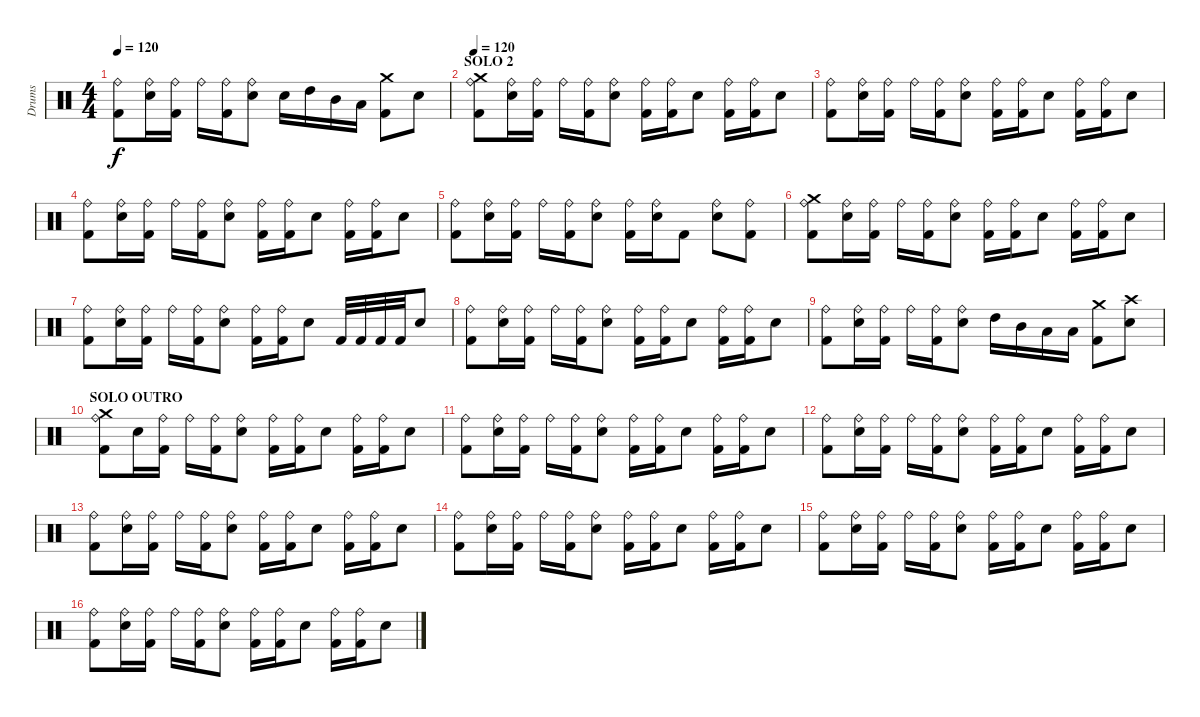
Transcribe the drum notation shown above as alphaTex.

\track ("Drums" "Drums") {instrument percussion}
\staff {score}
\articulation defaults
\ts (4 4)
\tempo 120
\clef neutral
\ks c
("Kick (hit) 2" "Ride (bell)").8{dy f} ("Snare (hit) 2" "Ride (bell)").16 ("Kick (hit) 2" "Ride (bell)").16 "Ride (bell)".16 ("Kick (hit) 2" "Ride (bell)").16 ("Snare (hit) 2" "Ride (bell)").8 "Snare (hit) 2".16 "High Tom (hit)".16 "Mid Tom (hit)".16 "Low Tom (hit)".16 ("Crash medium (hit)" "Kick (hit) 2").8 "Snare (hit) 2".8 |
\section ("" "SOLO 2")
\tempo 120
("Crash medium (hit)" "Kick (hit) 2" "Ride (bell)").8 ("Snare (hit) 2" "Ride (bell)").16 ("Kick (hit) 2" "Ride (bell)").16 "Ride (bell)".16 ("Kick (hit) 2" "Ride (bell)").16 ("Snare (hit) 2" "Ride (bell)").8 ("Kick (hit) 2" "Ride (bell)").16 ("Kick (hit) 2" "Ride (bell)").16 "Snare (hit) 2".8 ("Kick (hit) 2" "Ride (bell)").16 ("Kick (hit) 2" "Ride (bell)").16 "Snare (hit) 2".8 |
("Kick (hit) 2" "Ride (bell)").8 ("Snare (hit) 2" "Ride (bell)").16 ("Kick (hit) 2" "Ride (bell)").16 "Ride (bell)".16 ("Kick (hit) 2" "Ride (bell)").16 ("Snare (hit) 2" "Ride (bell)").8 ("Kick (hit) 2" "Ride (bell)").16 ("Kick (hit) 2" "Ride (bell)").16 "Snare (hit) 2".8 ("Kick (hit) 2" "Ride (bell)").16 ("Kick (hit) 2" "Ride (bell)").16 "Snare (hit) 2".8 |
("Kick (hit) 2" "Ride (bell)").8 ("Snare (hit) 2" "Ride (bell)").16 ("Kick (hit) 2" "Ride (bell)").16 "Ride (bell)".16 ("Kick (hit) 2" "Ride (bell)").16 ("Snare (hit) 2" "Ride (bell)").8 ("Kick (hit) 2" "Ride (bell)").16 ("Kick (hit) 2" "Ride (bell)").16 "Snare (hit) 2".8 ("Kick (hit) 2" "Ride (bell)").16 ("Kick (hit) 2" "Ride (bell)").16 "Snare (hit) 2".8 |
("Kick (hit) 2" "Ride (bell)").8 ("Snare (hit) 2" "Ride (bell)").16 ("Kick (hit) 2" "Ride (bell)").16 "Ride (bell)".16 ("Kick (hit) 2" "Ride (bell)").16 ("Snare (hit) 2" "Ride (bell)").8 ("Kick (hit) 2" "Ride (bell)").16 ("Snare (hit) 2" "Ride (bell)").16 "Kick (hit) 2".8 ("Snare (hit) 2" "Ride (bell)").8 ("Kick (hit) 2" "Ride (bell)").8 |
("Crash medium (hit)" "Kick (hit) 2" "Ride (bell)").8 ("Snare (hit) 2" "Ride (bell)").16 ("Kick (hit) 2" "Ride (bell)").16 "Ride (bell)".16 ("Kick (hit) 2" "Ride (bell)").16 ("Snare (hit) 2" "Ride (bell)").8 ("Kick (hit) 2" "Ride (bell)").16 ("Kick (hit) 2" "Ride (bell)").16 "Snare (hit) 2".8 ("Kick (hit) 2" "Ride (bell)").16 ("Kick (hit) 2" "Ride (bell)").16 "Snare (hit) 2".8 |
("Kick (hit) 2" "Ride (bell)").8 ("Snare (hit) 2" "Ride (bell)").16 ("Kick (hit) 2" "Ride (bell)").16 "Ride (bell)".16 ("Kick (hit) 2" "Ride (bell)").16 ("Snare (hit) 2" "Ride (bell)").8 ("Kick (hit) 2" "Ride (bell)").16 ("Kick (hit) 2" "Ride (bell)").16 "Snare (hit) 2".8 "Kick (hit) 2".32 "Kick (hit) 2".32 "Kick (hit) 2".32 "Kick (hit) 2".32 "Snare (hit) 2".8 |
("Kick (hit) 2" "Ride (bell)").8 ("Snare (hit) 2" "Ride (bell)").16 ("Kick (hit) 2" "Ride (bell)").16 "Ride (bell)".16 ("Kick (hit) 2" "Ride (bell)").16 ("Snare (hit) 2" "Ride (bell)").8 ("Kick (hit) 2" "Ride (bell)").16 ("Kick (hit) 2" "Ride (bell)").16 "Snare (hit) 2".8 ("Kick (hit) 2" "Ride (bell)").16 ("Kick (hit) 2" "Ride (bell)").16 "Snare (hit) 2".8 |
("Kick (hit) 2" "Ride (bell)").8 ("Snare (hit) 2" "Ride (bell)").16 ("Kick (hit) 2" "Ride (bell)").16 "Ride (bell)".16 ("Kick (hit) 2" "Ride (bell)").16 ("Snare (hit) 2" "Ride (bell)").8 "High Tom (hit)".16 "Mid Tom (hit)".16 "Low Tom (hit)".16 "Low Tom (hit)".16 ("Crash medium (hit)" "Kick (hit) 2").8 ("Crash high (hit)" "Snare (hit) 2").8 |
\section ("" "SOLO OUTRO")
("Crash medium (hit)" "Kick (hit) 2" "Ride (bell)").8 "Snare (hit) 2".16 ("Kick (hit) 2" "Ride (bell)").16 "Ride (bell)".16 ("Kick (hit) 2" "Ride (bell)").16 ("Snare (hit) 2" "Ride (bell)").8 ("Kick (hit) 2" "Ride (bell)").16 ("Kick (hit) 2" "Ride (bell)").16 "Snare (hit) 2".8 ("Kick (hit) 2" "Ride (bell)").16 ("Kick (hit) 2" "Ride (bell)").16 "Snare (hit) 2".8 |
("Kick (hit) 2" "Ride (bell)").8 ("Snare (hit) 2" "Ride (bell)").16 ("Kick (hit) 2" "Ride (bell)").16 "Ride (bell)".16 ("Kick (hit) 2" "Ride (bell)").16 ("Snare (hit) 2" "Ride (bell)").8 ("Kick (hit) 2" "Ride (bell)").16 ("Kick (hit) 2" "Ride (bell)").16 "Snare (hit) 2".8 ("Kick (hit) 2" "Ride (bell)").16 ("Kick (hit) 2" "Ride (bell)").16 "Snare (hit) 2".8 |
("Kick (hit) 2" "Ride (bell)").8 ("Snare (hit) 2" "Ride (bell)").16 ("Kick (hit) 2" "Ride (bell)").16 "Ride (bell)".16 ("Kick (hit) 2" "Ride (bell)").16 ("Snare (hit) 2" "Ride (bell)").8 ("Kick (hit) 2" "Ride (bell)").16 ("Kick (hit) 2" "Ride (bell)").16 "Snare (hit) 2".8 ("Kick (hit) 2" "Ride (bell)").16 ("Kick (hit) 2" "Ride (bell)").16 "Snare (hit) 2".8 |
("Kick (hit) 2" "Ride (bell)").8 ("Snare (hit) 2" "Ride (bell)").16 ("Kick (hit) 2" "Ride (bell)").16 "Ride (bell)".16 ("Kick (hit) 2" "Ride (bell)").16 ("Snare (hit) 2" "Ride (bell)").8 ("Kick (hit) 2" "Ride (bell)").16 ("Kick (hit) 2" "Ride (bell)").16 "Snare (hit) 2".8 ("Kick (hit) 2" "Ride (bell)").16 ("Kick (hit) 2" "Ride (bell)").16 "Snare (hit) 2".8 |
("Kick (hit) 2" "Ride (bell)").8 ("Snare (hit) 2" "Ride (bell)").16 ("Kick (hit) 2" "Ride (bell)").16 "Ride (bell)".16 ("Kick (hit) 2" "Ride (bell)").16 ("Snare (hit) 2" "Ride (bell)").8 ("Kick (hit) 2" "Ride (bell)").16 ("Kick (hit) 2" "Ride (bell)").16 "Snare (hit) 2".8 ("Kick (hit) 2" "Ride (bell)").16 ("Kick (hit) 2" "Ride (bell)").16 "Snare (hit) 2".8 |
("Kick (hit) 2" "Ride (bell)").8 ("Snare (hit) 2" "Ride (bell)").16 ("Kick (hit) 2" "Ride (bell)").16 "Ride (bell)".16 ("Kick (hit) 2" "Ride (bell)").16 ("Snare (hit) 2" "Ride (bell)").8 ("Kick (hit) 2" "Ride (bell)").16 ("Kick (hit) 2" "Ride (bell)").16 "Snare (hit) 2".8 ("Kick (hit) 2" "Ride (bell)").16 ("Kick (hit) 2" "Ride (bell)").16 "Snare (hit) 2".8 |
("Kick (hit) 2" "Ride (bell)").8 ("Snare (hit) 2" "Ride (bell)").16 ("Kick (hit) 2" "Ride (bell)").16 "Ride (bell)".16 ("Kick (hit) 2" "Ride (bell)").16 ("Snare (hit) 2" "Ride (bell)").8 ("Kick (hit) 2" "Ride (bell)").16 ("Kick (hit) 2" "Ride (bell)").16 "Snare (hit) 2".8 ("Kick (hit) 2" "Ride (bell)").16 ("Kick (hit) 2" "Ride (bell)").16 "Snare (hit) 2".8
